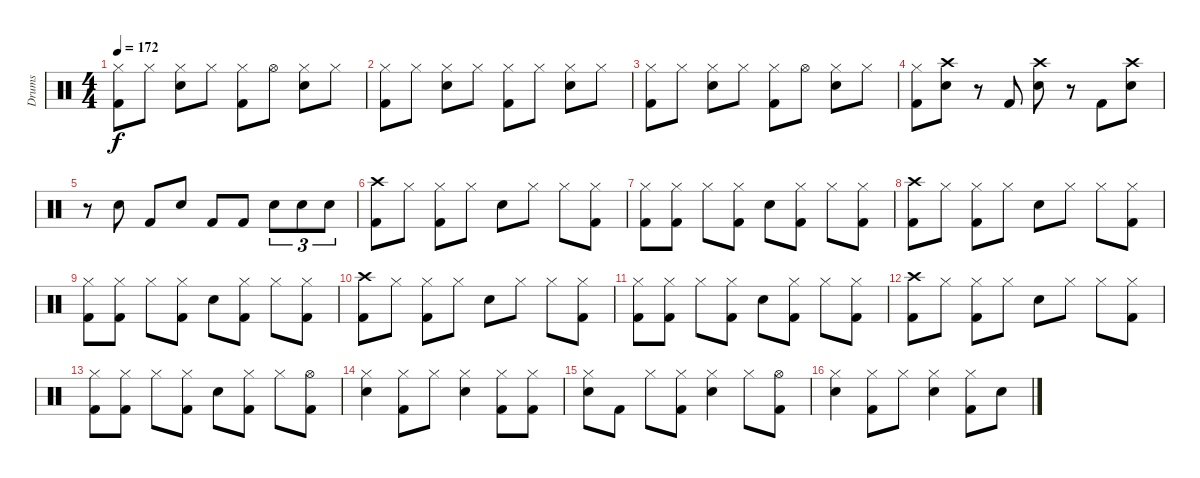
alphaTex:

\track ("Drums" "Drums") {instrument percussion}
\staff {score}
\articulation defaults
\ts (4 4)
\tempo 172
\clef neutral
\ks c
("Hi-Hat (closed)" "Kick (hit) 2").8{dy f} "Hi-Hat (closed)".8 ("Hi-Hat (closed)" "Electric Snare (hit)").8 "Hi-Hat (closed)".8 ("Hi-Hat (closed)" "Kick (hit) 2").8 "Hi-Hat (open)".8 ("Hi-Hat (closed)" "Electric Snare (hit)").8 "Hi-Hat (closed)".8 |
("Hi-Hat (closed)" "Kick (hit) 2").8 "Hi-Hat (closed)".8 ("Hi-Hat (closed)" "Electric Snare (hit)").8 "Hi-Hat (closed)".8 ("Hi-Hat (closed)" "Kick (hit) 2").8 "Hi-Hat (closed)".8 ("Hi-Hat (closed)" "Electric Snare (hit)").8 "Hi-Hat (closed)".8 |
("Hi-Hat (closed)" "Kick (hit) 2").8 "Hi-Hat (closed)".8 ("Hi-Hat (closed)" "Electric Snare (hit)").8 "Hi-Hat (closed)".8 ("Hi-Hat (closed)" "Kick (hit) 2").8 "Hi-Hat (open)".8 ("Hi-Hat (closed)" "Electric Snare (hit)").8 "Hi-Hat (closed)".8 |
("Hi-Hat (closed)" "Kick (hit) 2").8 ("Crash high (hit)" "Electric Snare (hit)").8 r.8 "Kick (hit) 2".8 ("Crash high (hit)" "Electric Snare (hit)").8 r.8 "Kick (hit) 2".8 ("Crash high (hit)" "Electric Snare (hit)").8 |
r.8 "Electric Snare (hit)".8 "Kick (hit) 2".8 "Electric Snare (hit)".8 "Kick (hit) 2".8 "Kick (hit) 2".8 "Electric Snare (hit)".8{tu (3 2)} "Electric Snare (hit)".8{tu (3 2)} "Electric Snare (hit)".8{tu (3 2)} |
("Crash high (hit)" "Kick (hit) 2").8 "Hi-Hat (closed)".8 ("Hi-Hat (closed)" "Kick (hit) 2").8 "Hi-Hat (closed)".8 "Electric Snare (hit)".8 "Hi-Hat (closed)".8 "Hi-Hat (closed)".8 ("Hi-Hat (closed)" "Kick (hit) 2").8 |
("Hi-Hat (closed)" "Kick (hit) 2").8 ("Hi-Hat (closed)" "Kick (hit) 2").8 "Hi-Hat (closed)".8 ("Hi-Hat (closed)" "Kick (hit) 2").8 "Electric Snare (hit)".8 ("Hi-Hat (closed)" "Kick (hit) 2").8 "Hi-Hat (closed)".8 ("Hi-Hat (closed)" "Kick (hit) 2").8 |
("Crash high (hit)" "Kick (hit) 2").8 "Hi-Hat (closed)".8 ("Hi-Hat (closed)" "Kick (hit) 2").8 "Hi-Hat (closed)".8 "Electric Snare (hit)".8 "Hi-Hat (closed)".8 "Hi-Hat (closed)".8 ("Hi-Hat (closed)" "Kick (hit) 2").8 |
("Hi-Hat (closed)" "Kick (hit) 2").8 ("Hi-Hat (closed)" "Kick (hit) 2").8 "Hi-Hat (closed)".8 ("Hi-Hat (closed)" "Kick (hit) 2").8 "Electric Snare (hit)".8 ("Hi-Hat (closed)" "Kick (hit) 2").8 "Hi-Hat (closed)".8 ("Hi-Hat (closed)" "Kick (hit) 2").8 |
("Crash high (hit)" "Kick (hit) 2").8 "Hi-Hat (closed)".8 ("Hi-Hat (closed)" "Kick (hit) 2").8 "Hi-Hat (closed)".8 "Electric Snare (hit)".8 "Hi-Hat (closed)".8 "Hi-Hat (closed)".8 ("Hi-Hat (closed)" "Kick (hit) 2").8 |
("Hi-Hat (closed)" "Kick (hit) 2").8 ("Hi-Hat (closed)" "Kick (hit) 2").8 "Hi-Hat (closed)".8 ("Hi-Hat (closed)" "Kick (hit) 2").8 "Electric Snare (hit)".8 ("Hi-Hat (closed)" "Kick (hit) 2").8 "Hi-Hat (closed)".8 ("Hi-Hat (closed)" "Kick (hit) 2").8 |
("Crash high (hit)" "Kick (hit) 2").8 "Hi-Hat (closed)".8 ("Hi-Hat (closed)" "Kick (hit) 2").8 "Hi-Hat (closed)".8 "Electric Snare (hit)".8 "Hi-Hat (closed)".8 "Hi-Hat (closed)".8 ("Hi-Hat (closed)" "Kick (hit) 2").8 |
("Hi-Hat (closed)" "Kick (hit) 2").8 ("Hi-Hat (closed)" "Kick (hit) 2").8 "Hi-Hat (closed)".8 ("Hi-Hat (closed)" "Kick (hit) 2").8 "Electric Snare (hit)".8 ("Hi-Hat (closed)" "Kick (hit) 2").8 "Hi-Hat (closed)".8 ("Hi-Hat (open)" "Kick (hit) 2").8 |
("Hi-Hat (closed)" "Electric Snare (hit)").4 ("Hi-Hat (closed)" "Kick (hit) 2").8 "Hi-Hat (closed)".8 ("Hi-Hat (closed)" "Electric Snare (hit)").4 ("Hi-Hat (closed)" "Kick (hit) 2").8 ("Hi-Hat (closed)" "Kick (hit) 2").8 |
("Hi-Hat (closed)" "Electric Snare (hit)").8 "Kick (hit) 2".8 "Hi-Hat (closed)".8 ("Hi-Hat (closed)" "Kick (hit) 2").8 ("Hi-Hat (closed)" "Electric Snare (hit)").4 "Hi-Hat (closed)".8 ("Hi-Hat (open)" "Kick (hit) 2").8 |
("Hi-Hat (closed)" "Electric Snare (hit)").4 ("Hi-Hat (closed)" "Kick (hit) 2").8 "Hi-Hat (closed)".8 ("Hi-Hat (closed)" "Electric Snare (hit)").4 ("Hi-Hat (closed)" "Kick (hit) 2").8 "Electric Snare (hit)".8
